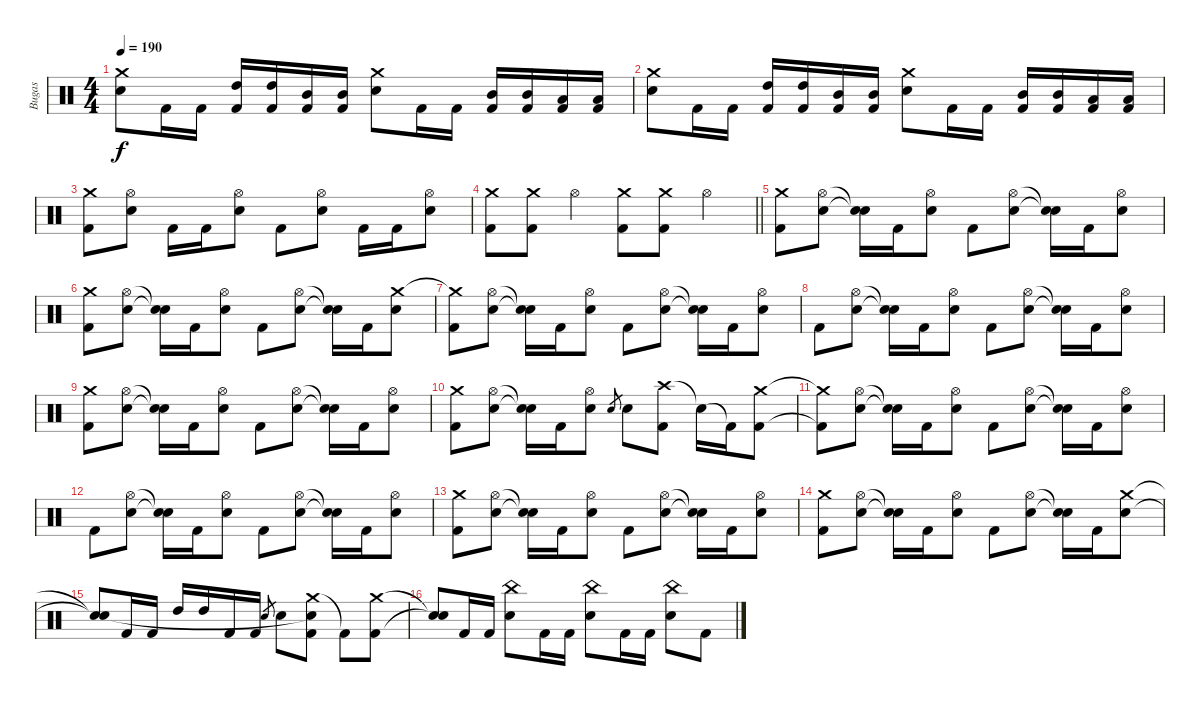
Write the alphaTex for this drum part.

\track ("Bugas" "Bugas") {instrument percussion}
\staff {score}
\articulation defaults
\ts (4 4)
\tempo 190
\clef neutral
\ks c
("Crash medium (hit)" "Electric Snare (hit)").8{dy f} "Kick (hit) 2".16 "Kick (hit) 2".16 ("High Tom (hit)" "Kick (hit) 2").16 ("High Tom (hit)" "Kick (hit) 2").16 ("Mid Tom (hit)" "Kick (hit) 2").16 ("Mid Tom (hit)" "Kick (hit) 2").16 ("Crash medium (hit)" "Electric Snare (hit)").8 "Kick (hit) 2".16 "Kick (hit) 2".16 ("Mid Tom (hit)" "Kick (hit) 2").16 ("Mid Tom (hit)" "Kick (hit) 2").16 ("Low Tom (hit)" "Kick (hit) 2").16 ("Low Tom (hit)" "Kick (hit) 2").16 |
("Crash medium (hit)" "Electric Snare (hit)").8 "Kick (hit) 2".16 "Kick (hit) 2".16 ("High Tom (hit)" "Kick (hit) 2").16 ("High Tom (hit)" "Kick (hit) 2").16 ("Mid Tom (hit)" "Kick (hit) 2").16 ("Mid Tom (hit)" "Kick (hit) 2").16 ("Crash medium (hit)" "Electric Snare (hit)").8 "Kick (hit) 2".16 "Kick (hit) 2".16 ("Mid Tom (hit)" "Kick (hit) 2").16 ("Mid Tom (hit)" "Kick (hit) 2").16 ("Low Tom (hit)" "Kick (hit) 2").16 ("Low Tom (hit)" "Kick (hit) 2").16 |
("Crash medium (hit)" "Kick (hit) 2").8 ("Hi-Hat (open)" "Electric Snare (hit)").8 "Kick (hit) 2".16 "Kick (hit) 2".16 ("Hi-Hat (open)" "Electric Snare (hit)").8 "Kick (hit) 2".8 ("Hi-Hat (open)" "Electric Snare (hit)").8 "Kick (hit) 2".16 "Kick (hit) 2".16 ("Hi-Hat (open)" "Electric Snare (hit)").8 |
\barLineRight lightlight
("Crash medium (hit)" "Kick (hit) 2").8 ("Crash medium (hit)" "Kick (hit) 2").8 "Hi-Hat (open)".4 ("Crash medium (hit)" "Kick (hit) 2").8 ("Crash medium (hit)" "Kick (hit) 2").8 "Hi-Hat (open)".4 |
("Crash medium (hit)" "Kick (hit) 2").8 ("Hi-Hat (open)" "Electric Snare (hit)").8 ("Snare (hit)"{t} "Snare (hit)"{t}).16 "Kick (hit) 2".16 ("Hi-Hat (open)" "Electric Snare (hit)").8 "Kick (hit) 2".8 ("Hi-Hat (open)" "Electric Snare (hit)").8 ("Snare (hit)"{t} "Snare (hit)"{t}).16 "Kick (hit) 2".16 ("Hi-Hat (open)" "Electric Snare (hit)").8 |
("Crash medium (hit)" "Kick (hit) 2").8 ("Hi-Hat (open)" "Electric Snare (hit)").8 ("Snare (hit)"{t} "Snare (hit)"{t}).16 "Kick (hit) 2".16 ("Hi-Hat (open)" "Electric Snare (hit)").8 "Kick (hit) 2".8 ("Hi-Hat (open)" "Electric Snare (hit)").8 ("Snare (hit)"{t} "Snare (hit)"{t}).16 "Kick (hit) 2".16 ("Crash medium (hit)" "Electric Snare (hit)").8 |
("Crash medium (hit)"{t} "Kick (hit) 2").8 ("Hi-Hat (open)" "Electric Snare (hit)").8 ("Snare (hit)"{t} "Snare (hit)"{t}).16 "Kick (hit) 2".16 ("Hi-Hat (open)" "Electric Snare (hit)").8 "Kick (hit) 2".8 ("Hi-Hat (open)" "Electric Snare (hit)").8 ("Snare (hit)"{t} "Snare (hit)"{t}).16 "Kick (hit) 2".16 ("Hi-Hat (open)" "Electric Snare (hit)").8 |
"Kick (hit) 2".8 ("Hi-Hat (open)" "Electric Snare (hit)").8 ("Snare (hit)"{t} "Snare (hit)"{t}).16 "Kick (hit) 2".16 ("Hi-Hat (open)" "Electric Snare (hit)").8 "Kick (hit) 2".8 ("Hi-Hat (open)" "Electric Snare (hit)").8 ("Snare (hit)"{t} "Snare (hit)"{t}).16 "Kick (hit) 2".16 ("Hi-Hat (open)" "Electric Snare (hit)").8 |
("Crash medium (hit)" "Kick (hit) 2").8 ("Hi-Hat (open)" "Electric Snare (hit)").8 ("Snare (hit)"{t} "Snare (hit)"{t}).16 "Kick (hit) 2".16 ("Hi-Hat (open)" "Electric Snare (hit)").8 "Kick (hit) 2".8 ("Hi-Hat (open)" "Electric Snare (hit)").8 ("Snare (hit)"{t} "Snare (hit)"{t}).16 "Kick (hit) 2".16 ("Hi-Hat (open)" "Electric Snare (hit)").8 |
("Crash medium (hit)" "Kick (hit) 2").8 ("Hi-Hat (open)" "Electric Snare (hit)").8 ("Snare (hit)"{t} "Snare (hit)"{t}).16 "Kick (hit) 2".16 ("Hi-Hat (open)" "Electric Snare (hit)").8 "Electric Snare (hit)".8{gr} "Electric Snare (hit)".8 ("Crash high (hit)" "Kick (hit) 2").8 "Snare (hit)"{t}.16 "Kick (hit) 2"{t}.16 ("Crash medium (hit)" "Kick (hit) 2").8 |
("Crash medium (hit)"{t} "Kick (hit) 2"{t}).8 ("Hi-Hat (open)" "Electric Snare (hit)").8 ("Snare (hit)"{t} "Snare (hit)"{t}).16 "Kick (hit) 2".16 ("Hi-Hat (open)" "Electric Snare (hit)").8 "Kick (hit) 2".8 ("Hi-Hat (open)" "Electric Snare (hit)").8 ("Snare (hit)"{t} "Snare (hit)"{t}).16 "Kick (hit) 2".16 ("Hi-Hat (open)" "Electric Snare (hit)").8 |
"Kick (hit) 2".8 ("Hi-Hat (open)" "Electric Snare (hit)").8 ("Snare (hit)"{t} "Snare (hit)"{t}).16 "Kick (hit) 2".16 ("Hi-Hat (open)" "Electric Snare (hit)").8 "Kick (hit) 2".8 ("Hi-Hat (open)" "Electric Snare (hit)").8 ("Snare (hit)"{t} "Snare (hit)"{t}).16 "Kick (hit) 2".16 ("Hi-Hat (open)" "Electric Snare (hit)").8 |
("Crash medium (hit)" "Kick (hit) 2").8 ("Hi-Hat (open)" "Electric Snare (hit)").8 ("Snare (hit)"{t} "Snare (hit)"{t}).16 "Kick (hit) 2".16 ("Hi-Hat (open)" "Electric Snare (hit)").8 "Kick (hit) 2".8 ("Hi-Hat (open)" "Electric Snare (hit)").8 ("Snare (hit)"{t} "Snare (hit)"{t}).16 "Kick (hit) 2".16 ("Hi-Hat (open)" "Electric Snare (hit)").8 |
("Crash medium (hit)" "Kick (hit) 2").8 ("Hi-Hat (open)" "Electric Snare (hit)").8 ("Snare (hit)"{t} "Snare (hit)"{t}).16 "Kick (hit) 2".16 ("Hi-Hat (open)" "Electric Snare (hit)").8 "Kick (hit) 2".8 ("Hi-Hat (open)" "Electric Snare (hit)").8 ("Snare (hit)"{t} "Snare (hit)"{t}).16 "Kick (hit) 2".16 ("Crash medium (hit)" "Electric Snare (hit)").8 |
("Snare (hit)"{t} "Snare (hit)"{t}).8 "Kick (hit) 2".16 "Kick (hit) 2".16 "High Tom (hit)".16 "High Tom (hit)".16 "Kick (hit) 2".16 "Kick (hit) 2".16 "Electric Snare (hit)".8{gr} "Electric Snare (hit)".8 ("Crash medium (hit)" "Snare (hit)"{t} "Kick (hit) 2").8 "Kick (hit) 2"{t}.8 ("Crash medium (hit)" "Kick (hit) 2").8 |
("Snare (hit)"{t} "Snare (hit)"{t}).8 "Kick (hit) 2".16 "Kick (hit) 2".16 ("China (hit)" "Electric Snare (hit)").8 "Kick (hit) 2".16 "Kick (hit) 2".16 ("China (hit)" "Electric Snare (hit)").8 "Kick (hit) 2".16 "Kick (hit) 2".16 ("China (hit)" "Electric Snare (hit)").8 "Kick (hit) 2".8
